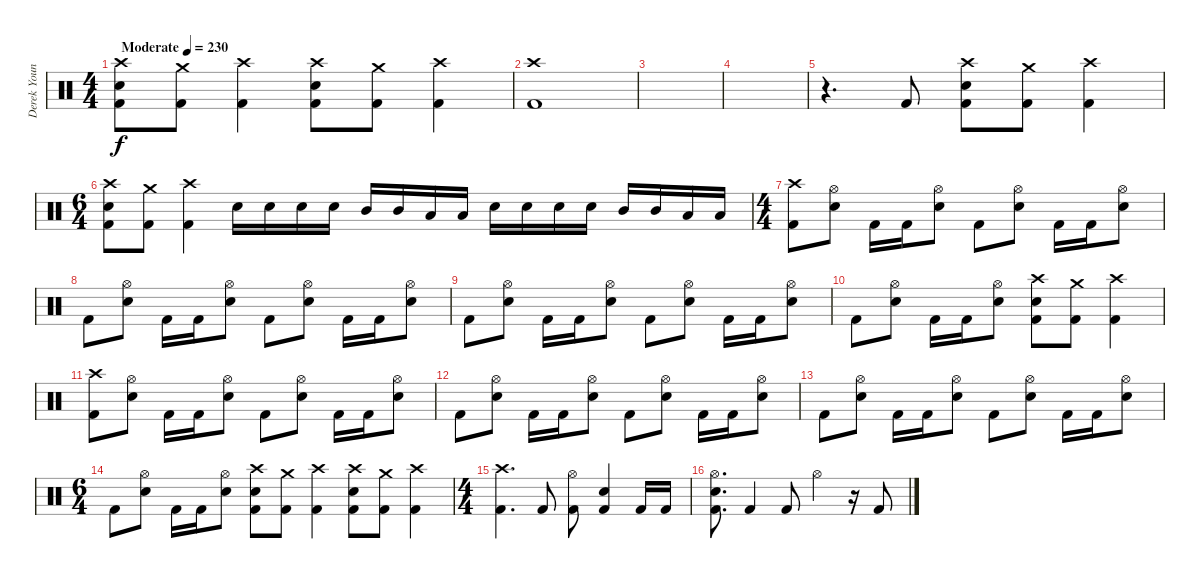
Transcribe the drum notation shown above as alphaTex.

\track ("Derek Youngsma" "Derek Youn") {instrument percussion}
\staff {score}
\articulation defaults
\ts (4 4)
\tempo (230 "Moderate")
\clef neutral
\ks c
("Crash high (hit)" "Electric Snare (hit)" "Kick (hit) 2").8{dy f} ("Crash medium (hit)" "Kick (hit) 2").8 ("Crash high (hit)" "Kick (hit) 2").4 ("Crash high (hit)" "Electric Snare (hit)" "Kick (hit) 2").8 ("Crash medium (hit)" "Kick (hit) 2").8 ("Crash high (hit)" "Kick (hit) 2").4 |
("Crash high (hit)" "Kick (hit) 2").1 |
|
|
r.4{d} "Kick (hit) 2".8 ("Crash high (hit)" "Electric Snare (hit)" "Kick (hit) 2").8 ("Crash medium (hit)" "Kick (hit) 2").8 ("Crash high (hit)" "Kick (hit) 2").4 |
\ts (6 4)
("Crash high (hit)" "Electric Snare (hit)" "Kick (hit) 2").8 ("Crash medium (hit)" "Kick (hit) 2").8 ("Crash high (hit)" "Kick (hit) 2").4 "Electric Snare (hit)".16 "Electric Snare (hit)".16 "Electric Snare (hit)".16 "Electric Snare (hit)".16 "Mid Tom (hit)".16 "Mid Tom (hit)".16 "Low Tom (hit)".16 "Low Tom (hit)".16 "Electric Snare (hit)".16 "Electric Snare (hit)".16 "Electric Snare (hit)".16 "Electric Snare (hit)".16 "Mid Tom (hit)".16 "Mid Tom (hit)".16 "Low Tom (hit)".16 "Low Tom (hit)".16 |
\ts (4 4)
("Crash high (hit)" "Kick (hit) 2").8 ("Hi-Hat (open)" "Electric Snare (hit)").8 "Kick (hit) 2".16 "Kick (hit) 2".16 ("Hi-Hat (open)" "Electric Snare (hit)").8 "Kick (hit) 2".8 ("Hi-Hat (open)" "Electric Snare (hit)").8 "Kick (hit) 2".16 "Kick (hit) 2".16 ("Hi-Hat (open)" "Electric Snare (hit)").8 |
"Kick (hit) 2".8 ("Hi-Hat (open)" "Electric Snare (hit)").8 "Kick (hit) 2".16 "Kick (hit) 2".16 ("Hi-Hat (open)" "Electric Snare (hit)").8 "Kick (hit) 2".8 ("Hi-Hat (open)" "Electric Snare (hit)").8 "Kick (hit) 2".16 "Kick (hit) 2".16 ("Hi-Hat (open)" "Electric Snare (hit)").8 |
"Kick (hit) 2".8 ("Hi-Hat (open)" "Electric Snare (hit)").8 "Kick (hit) 2".16 "Kick (hit) 2".16 ("Hi-Hat (open)" "Electric Snare (hit)").8 "Kick (hit) 2".8 ("Hi-Hat (open)" "Electric Snare (hit)").8 "Kick (hit) 2".16 "Kick (hit) 2".16 ("Hi-Hat (open)" "Electric Snare (hit)").8 |
"Kick (hit) 2".8 ("Hi-Hat (open)" "Electric Snare (hit)").8 "Kick (hit) 2".16 "Kick (hit) 2".16 ("Hi-Hat (open)" "Electric Snare (hit)").8 ("Crash high (hit)" "Electric Snare (hit)" "Kick (hit) 2").8 ("Crash medium (hit)" "Kick (hit) 2").8 ("Crash high (hit)" "Kick (hit) 2").4 |
("Crash high (hit)" "Kick (hit) 2").8 ("Hi-Hat (open)" "Electric Snare (hit)").8 "Kick (hit) 2".16 "Kick (hit) 2".16 ("Hi-Hat (open)" "Electric Snare (hit)").8 "Kick (hit) 2".8 ("Hi-Hat (open)" "Electric Snare (hit)").8 "Kick (hit) 2".16 "Kick (hit) 2".16 ("Hi-Hat (open)" "Electric Snare (hit)").8 |
"Kick (hit) 2".8 ("Hi-Hat (open)" "Electric Snare (hit)").8 "Kick (hit) 2".16 "Kick (hit) 2".16 ("Hi-Hat (open)" "Electric Snare (hit)").8 "Kick (hit) 2".8 ("Hi-Hat (open)" "Electric Snare (hit)").8 "Kick (hit) 2".16 "Kick (hit) 2".16 ("Hi-Hat (open)" "Electric Snare (hit)").8 |
"Kick (hit) 2".8 ("Hi-Hat (open)" "Electric Snare (hit)").8 "Kick (hit) 2".16 "Kick (hit) 2".16 ("Hi-Hat (open)" "Electric Snare (hit)").8 "Kick (hit) 2".8 ("Hi-Hat (open)" "Electric Snare (hit)").8 "Kick (hit) 2".16 "Kick (hit) 2".16 ("Hi-Hat (open)" "Electric Snare (hit)").8 |
\ts (6 4)
"Kick (hit) 2".8 ("Hi-Hat (open)" "Electric Snare (hit)").8 "Kick (hit) 2".16 "Kick (hit) 2".16 ("Hi-Hat (open)" "Electric Snare (hit)").8 ("Crash high (hit)" "Electric Snare (hit)" "Kick (hit) 2").8 ("Crash medium (hit)" "Kick (hit) 2").8 ("Crash high (hit)" "Kick (hit) 2").4 ("Crash high (hit)" "Electric Snare (hit)" "Kick (hit) 2").8 ("Crash medium (hit)" "Kick (hit) 2").8 ("Crash high (hit)" "Kick (hit) 2").4 |
\ts (4 4)
("Crash high (hit)" "Kick (hit) 2").4{d} "Kick (hit) 2".8 ("Hi-Hat (open)" "Kick (hit) 2").8 ("Electric Snare (hit)" "Kick (hit) 2").4 "Kick (hit) 2".16 "Kick (hit) 2".16 |
("Hi-Hat (open)" "Electric Snare (hit)" "Kick (hit) 2").8{d} "Kick (hit) 2".4 "Kick (hit) 2".8 "Hi-Hat (open)".4 r.16 "Kick (hit) 2".8
